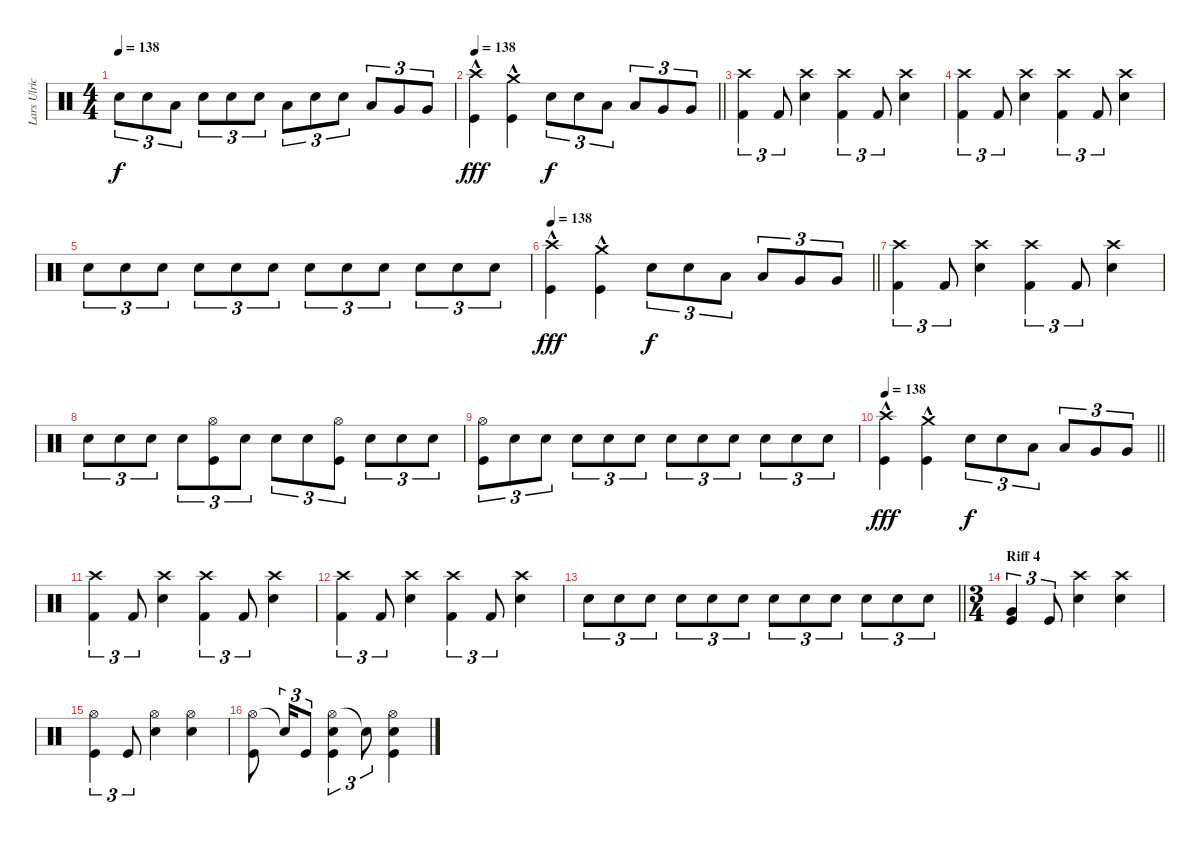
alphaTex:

\track ("Lars Ulrich" "Lars Ulric") {instrument percussion}
\staff {score}
\articulation defaults
\ts (4 4)
\tempo 138
\clef neutral
\ks c "Snare (hit) 2".8{tu (3 2) dy f} "Snare (hit) 2".8{tu (3 2)} "Low Tom (hit)".8{tu (3 2)} "Snare (hit) 2".8{tu (3 2)} "Snare (hit) 2".8{tu (3 2)} "Snare (hit) 2".8{tu (3 2)} "Low Tom (hit)".8{tu (3 2)} "Snare (hit) 2".8{tu (3 2)} "Snare (hit) 2".8{tu (3 2)} "Low Tom (hit)".8{tu (3 2)} "Very Low Tom (hit)".8{tu (3 2)} "Very Low Tom (hit)".8{tu (3 2)}
|
\tempo 138
\barLineRight lightlight
("Crash high (hit)"{hac} "Kick (hit)"{hac}).4{dy fff} ("Crash medium (hit)"{hac} "Kick (hit)"{hac}).4 "Snare (hit) 2".8{tu (3 2) dy f} "Snare (hit) 2".8{tu (3 2)} "Low Tom (hit)".8{tu (3 2)} "Low Tom (hit)".8{tu (3 2)} "Very Low Tom (hit)".8{tu (3 2)} "Very Low Tom (hit)".8{tu (3 2)} |
("Crash high (hit)" "Kick (hit) 2").4{tu (3 2)} "Kick (hit) 2".8{tu (3 2)} ("Crash high (hit)" "Snare (hit) 2").4 ("Crash high (hit)" "Kick (hit) 2").4{tu (3 2)} "Kick (hit) 2".8{tu (3 2)} ("Crash high (hit)" "Snare (hit) 2").4 |
("Crash high (hit)" "Kick (hit) 2").4{tu (3 2)} "Kick (hit) 2".8{tu (3 2)} ("Crash high (hit)" "Snare (hit) 2").4 ("Crash high (hit)" "Kick (hit) 2").4{tu (3 2)} "Kick (hit) 2".8{tu (3 2)} ("Crash high (hit)" "Snare (hit) 2").4 |
"Snare (hit) 2".8{tu (3 2)} "Snare (hit) 2".8{tu (3 2)} "Snare (hit) 2".8{tu (3 2)} "Snare (hit) 2".8{tu (3 2)} "Snare (hit) 2".8{tu (3 2)} "Snare (hit) 2".8{tu (3 2)} "Snare (hit) 2".8{tu (3 2)} "Snare (hit) 2".8{tu (3 2)} "Snare (hit) 2".8{tu (3 2)} "Snare (hit) 2".8{tu (3 2)} "Snare (hit) 2".8{tu (3 2)} "Snare (hit) 2".8{tu (3 2)} |
\tempo 138
\barLineRight lightlight
("Crash high (hit)"{hac} "Kick (hit)"{hac}).4{dy fff} ("Crash medium (hit)"{hac} "Kick (hit)"{hac}).4 "Snare (hit) 2".8{tu (3 2) dy f} "Snare (hit) 2".8{tu (3 2)} "Low Tom (hit)".8{tu (3 2)} "Low Tom (hit)".8{tu (3 2)} "Very Low Tom (hit)".8{tu (3 2)} "Very Low Tom (hit)".8{tu (3 2)} |
("Crash high (hit)" "Kick (hit) 2").4{tu (3 2)} "Kick (hit) 2".8{tu (3 2)} ("Crash high (hit)" "Snare (hit) 2").4 ("Crash high (hit)" "Kick (hit) 2").4{tu (3 2)} "Kick (hit) 2".8{tu (3 2)} ("Crash high (hit)" "Snare (hit) 2").4 |
"Snare (hit) 2".8{tu (3 2)} "Snare (hit) 2".8{tu (3 2)} "Snare (hit) 2".8{tu (3 2)} "Snare (hit) 2".8{tu (3 2)} ("Hi-Hat (open)" "Kick (hit)").8{tu (3 2)} "Snare (hit) 2".8{tu (3 2)} "Snare (hit) 2".8{tu (3 2)} "Snare (hit) 2".8{tu (3 2)} ("Hi-Hat (open)" "Kick (hit)").8{tu (3 2)} "Snare (hit) 2".8{tu (3 2)} "Snare (hit) 2".8{tu (3 2)} "Snare (hit) 2".8{tu (3 2)} |
("Hi-Hat (open)" "Kick (hit)").8{tu (3 2)} "Snare (hit) 2".8{tu (3 2)} "Snare (hit) 2".8{tu (3 2)} "Snare (hit) 2".8{tu (3 2)} "Snare (hit) 2".8{tu (3 2)} "Snare (hit) 2".8{tu (3 2)} "Snare (hit) 2".8{tu (3 2)} "Snare (hit) 2".8{tu (3 2)} "Snare (hit) 2".8{tu (3 2)} "Snare (hit) 2".8{tu (3 2)} "Snare (hit) 2".8{tu (3 2)} "Snare (hit) 2".8{tu (3 2)} |
\tempo 138
\barLineRight lightlight
("Crash high (hit)"{hac} "Kick (hit)"{hac}).4{dy fff} ("Crash medium (hit)"{hac} "Kick (hit)"{hac}).4 "Snare (hit) 2".8{tu (3 2) dy f} "Snare (hit) 2".8{tu (3 2)} "Low Tom (hit)".8{tu (3 2)} "Low Tom (hit)".8{tu (3 2)} "Very Low Tom (hit)".8{tu (3 2)} "Very Low Tom (hit)".8{tu (3 2)} |
("Crash high (hit)" "Kick (hit) 2").4{tu (3 2)} "Kick (hit) 2".8{tu (3 2)} ("Crash high (hit)" "Snare (hit) 2").4 ("Crash high (hit)" "Kick (hit) 2").4{tu (3 2)} "Kick (hit) 2".8{tu (3 2)} ("Crash high (hit)" "Snare (hit) 2").4 |
("Crash high (hit)" "Kick (hit) 2").4{tu (3 2)} "Kick (hit) 2".8{tu (3 2)} ("Crash high (hit)" "Snare (hit) 2").4 ("Crash high (hit)" "Kick (hit) 2").4{tu (3 2)} "Kick (hit) 2".8{tu (3 2)} ("Crash high (hit)" "Snare (hit) 2").4 |
\barLineRight lightlight "Snare (hit) 2".8{tu (3 2)} "Snare (hit) 2".8{tu (3 2)} "Snare (hit) 2".8{tu (3 2)} "Snare (hit) 2".8{tu (3 2)} "Snare (hit) 2".8{tu (3 2)} "Snare (hit) 2".8{tu (3 2)} "Snare (hit) 2".8{tu (3 2)} "Snare (hit) 2".8{tu (3 2)} "Snare (hit) 2".8{tu (3 2)} "Snare (hit) 2".8{tu (3 2)} "Snare (hit) 2".8{tu (3 2)} "Snare (hit) 2".8{tu (3 2)}
|
\ts (3 4)
\section ("" "Riff 4")
("Very Low Tom (hit)" "Kick (hit)").4{tu (3 2)} "Kick (hit)".8{tu (3 2)} ("Crash high (hit)" "Snare (hit) 2").4 ("Crash high (hit)" "Snare (hit) 2").4 |
("Hi-Hat (open)" "Kick (hit)").4{tu (3 2)} "Kick (hit)".8{tu (3 2)} ("Hi-Hat (open)" "Snare (hit) 2").4 ("Hi-Hat (open)" "Snare (hit) 2").4 |
("Hi-Hat (open)" "Kick (hit)").8 "Snare (hit)"{t}.16{tu (3 2)} "Kick (hit)".8{tu (3 2)} ("Hi-Hat (open)" "Snare (hit) 2" "Kick (hit)").4{tu (3 2)} "Snare (hit)"{t}.8{tu (3 2)} ("Hi-Hat (open)" "Snare (hit) 2" "Kick (hit)").4
